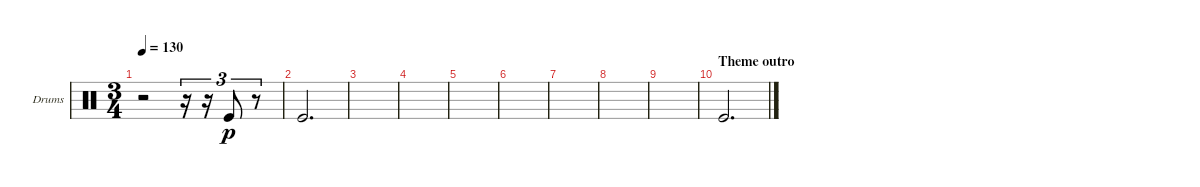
\bracketExtendMode groupsimilarinstruments
\firstSystemTrackNameOrientation horizontal
\otherSystemsTrackNameOrientation horizontal
\track ("Kick" "Drums") {instrument percussion}
\staff {score}
\articulation defaults
\ts (3 4)
\tempo 130
\clef neutral
\ks c
r.2{dy p} r.16{tu (3 2)} r.16{tu (3 2)} "Kick (hit)".8{tu (3 2)} r.8{tu (3 2)} |
"Kick (hit)".2{d} |
|
|
|
|
|
|
|
\section ("" "Theme outro")
"Kick (hit)".2{d}
